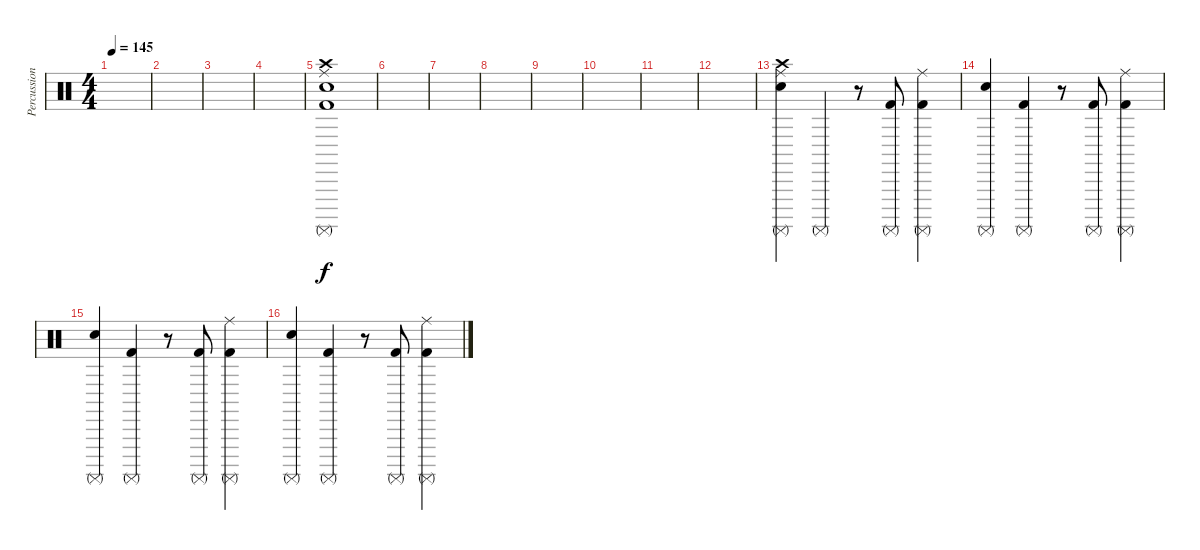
\track ("Percussions" "Percussion") {instrument percussion}
\staff {score}
\articulation defaults
\ts (4 4)
\tempo 145
\clef neutral
\ks c
|
|
|
|
("Kick (hit) 2" "Snare (hit) 2" "Surdo (mute)" "Crash high (hit)" "Ride (middle)").1 |
|
|
|
|
|
|
|
("Snare (hit) 2" "Surdo (mute)" "Crash high (hit)" "Ride (middle)").4 "Surdo (mute)".4 r.8 ("Kick (hit) 2" "Surdo (mute)").8 ("Kick (hit) 2" "Surdo (mute)" "Ride (middle)").4 |
("Snare (hit) 2" "Surdo (mute)").4 ("Kick (hit) 2" "Surdo (mute)").4 r.8 ("Kick (hit) 2" "Surdo (mute)").8 ("Kick (hit) 2" "Surdo (mute)" "Ride (middle)").4 |
("Snare (hit) 2" "Surdo (mute)").4 ("Kick (hit) 2" "Surdo (mute)").4 r.8 ("Kick (hit) 2" "Surdo (mute)").8 ("Kick (hit) 2" "Surdo (mute)" "Ride (middle)").4 |
("Snare (hit) 2" "Surdo (mute)").4 ("Kick (hit) 2" "Surdo (mute)").4 r.8 ("Kick (hit) 2" "Surdo (mute)").8 ("Kick (hit) 2" "Surdo (mute)" "Ride (middle)").4
